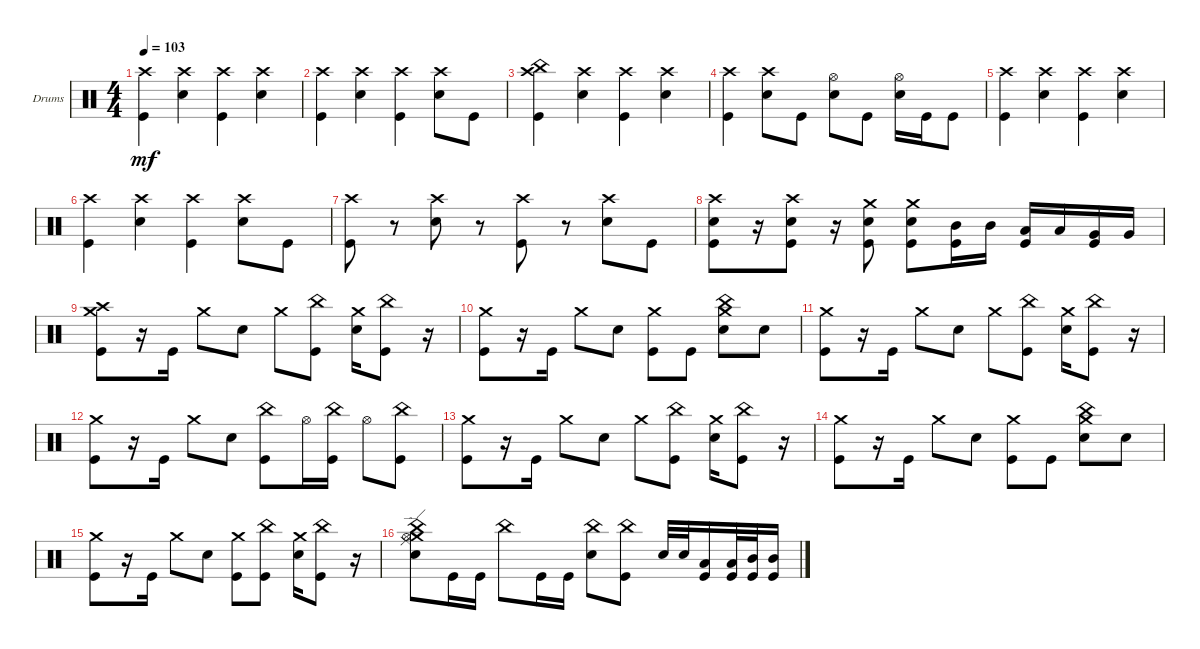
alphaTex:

\bracketExtendMode groupsimilarinstruments
\firstSystemTrackNameOrientation horizontal
\otherSystemsTrackNameOrientation horizontal
\track ("Drums" "Drums") {instrument percussion}
\staff {score}
\articulation defaults
\ts (4 4)
\tempo 103
\clef neutral
\ks c
("Crash high (hit)" "Kick (hit)").4{dy mf} ("Snare (hit) 2" "Crash high (hit)").4 ("Kick (hit)" "Crash high (hit)").4 ("Snare (hit) 2" "Crash high (hit)").4 |
("Kick (hit)" "Crash high (hit)").4 ("Snare (hit) 2" "Crash high (hit)").4 ("Kick (hit)" "Crash high (hit)").4 ("Snare (hit) 2" "Crash high (hit)").8 "Kick (hit)".8 |
("China (hit)" "Kick (hit)" "Crash high (hit)").4 ("Snare (hit) 2" "Crash high (hit)").4 ("Kick (hit)" "Crash high (hit)").4 ("Snare (hit) 2" "Crash high (hit)").4 |
("Kick (hit)" "Crash high (hit)").4 ("Snare (hit) 2" "Crash high (hit)").8 "Kick (hit)".8 ("Snare (hit) 2" "Hi-Hat (open)").8 "Kick (hit)".8 ("Hi-Hat (open)" "Snare (hit) 2").16 "Kick (hit)".16 "Kick (hit)".8 |
("Crash high (hit)" "Kick (hit)").4 ("Snare (hit) 2" "Crash high (hit)").4 ("Kick (hit)" "Crash high (hit)").4 ("Snare (hit) 2" "Crash high (hit)").4 |
("Kick (hit)" "Crash high (hit)").4 ("Snare (hit) 2" "Crash high (hit)").4 ("Kick (hit)" "Crash high (hit)").4 ("Snare (hit) 2" "Crash high (hit)").8 "Kick (hit)".8 |
("Crash high (hit)" "Kick (hit)").8 r.8 ("Snare (hit) 2" "Crash high (hit)").8 r.8 ("Crash high (hit)" "Kick (hit)").8 r.8 ("Crash high (hit)" "Snare (hit) 2").8 "Kick (hit)".8 |
("Kick (hit)" "Crash high (hit)" "Snare (hit) 2").8 r.16 ("Crash high (hit)" "Snare (hit) 2" "Kick (hit)").8 r.16 ("Snare (hit) 2" "Kick (hit)" "Crash medium (hit)").8 ("Kick (hit)" "Snare (hit) 2" "Crash medium (hit)").8 ("Mid Tom (hit)" "Kick (hit)").16 "Mid Tom (hit)".16 ("Low Tom (hit)" "Kick (hit)").16 "Low Tom (hit)".16 ("Very Low Tom (hit)" "Kick (hit)").16 "Very Low Tom (hit)".16 |
("Crash high (hit)" "Crash medium (hit)" "Kick (hit)").8 r.16 "Kick (hit)".16 "Crash medium (hit)".8 "Snare (hit) 2".8 "Crash medium (hit)".8 ("China (hit)" "Kick (hit)").8 ("Crash medium (hit)" "Snare (hit) 2").16 ("Kick (hit)" "China (hit)").8 r.16 |
("Crash medium (hit)" "Kick (hit)").8 r.16 "Kick (hit)".16 "Crash medium (hit)".8 "Snare (hit) 2".8 ("Kick (hit)" "Crash medium (hit)").8 "Kick (hit)".8 ("China (hit)" "Crash medium (hit)" "Snare (hit) 2").8 "Snare (hit) 2".8 |
("Kick (hit)" "Crash medium (hit)").8 r.16 "Kick (hit)".16 "Crash medium (hit)".8 "Snare (hit) 2".8 "Crash medium (hit)".8 ("China (hit)" "Kick (hit)").8 ("Crash medium (hit)" "Snare (hit) 2").16 ("Kick (hit)" "China (hit)").8 r.16 |
("Crash medium (hit)" "Kick (hit)").8 r.16 "Kick (hit)".16 "Crash medium (hit)".8 "Snare (hit) 2".8 ("Kick (hit)" "China (hit)").8 "Hi-Hat (open)".16 ("China (hit)" "Kick (hit)").16 "Hi-Hat (open)".8 ("China (hit)" "Kick (hit)").8 |
("Crash medium (hit)" "Kick (hit)").8 r.16 "Kick (hit)".16 "Crash medium (hit)".8 "Snare (hit) 2".8 "Crash medium (hit)".8 ("China (hit)" "Kick (hit)").8 ("Crash medium (hit)" "Snare (hit) 2").16 ("Kick (hit)" "China (hit)").8 r.16 |
("Crash medium (hit)" "Kick (hit)").8 r.16 "Kick (hit)".16 "Crash medium (hit)".8 "Snare (hit) 2".8 ("Kick (hit)" "Crash medium (hit)").8 "Kick (hit)".8 ("China (hit)" "Crash medium (hit)" "Snare (hit) 2").8 "Snare (hit) 2".8 |
("Kick (hit)" "Crash medium (hit)").8 r.16 "Kick (hit)".16 "Crash medium (hit)".8 "Snare (hit) 2".8 ("Kick (hit)" "Crash medium (hit)").8 ("China (hit)" "Kick (hit)").8 ("Crash medium (hit)" "Snare (hit) 2").16 ("China (hit)" "Kick (hit)").8 r.16 |
("Crash medium (hit)" "Snare (hit) 2" "China (hit)" "Ride (edge)" "Hi-Hat (open)").8 "Kick (hit)".16 "Kick (hit)".16 "China (hit)".8 "Kick (hit)".16 "Kick (hit)".16 ("China (hit)" "Snare (hit) 2").8 ("China (hit)" "Kick (hit)").8 "Snare (hit) 2".32 "Snare (hit) 2".32 ("Low Tom (hit)" "Kick (hit)").16 ("Low Tom (hit)" "Kick (hit)").32 ("Mid Tom (hit)" "Kick (hit)").32 ("Kick (hit)" "Mid Tom (hit)").16
